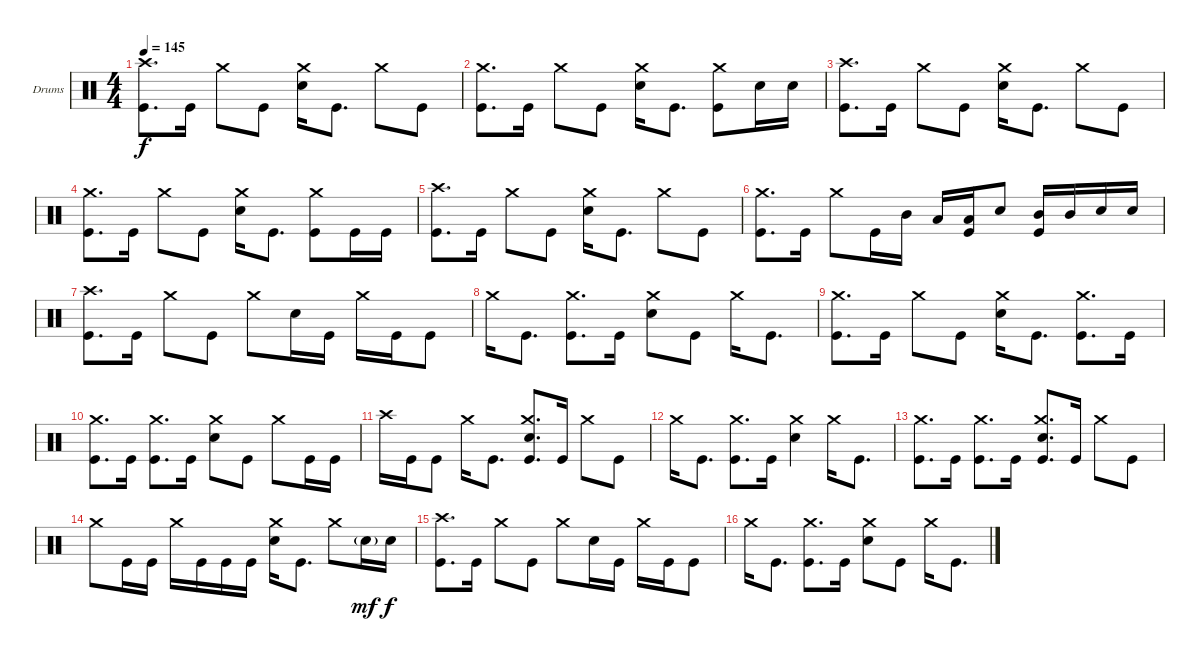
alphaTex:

\bracketExtendMode groupsimilarinstruments
\firstSystemTrackNameOrientation horizontal
\otherSystemsTrackNameOrientation horizontal
\track ("Drumkit" "Drums") {instrument percussion}
\staff {score}
\articulation defaults
\ts (4 4)
\tempo 145
\clef neutral
\ks c
("Crash high (hit)" "Kick (hit)").8{d dy f} "Kick (hit)".16 "Crash medium (hit)".8 "Kick (hit)".8 ("Crash medium (hit)" "Snare (hit) 2").16 "Kick (hit)".8{d} "Crash medium (hit)".8 "Kick (hit)".8 |
("Crash medium (hit)" "Kick (hit)").8{d} "Kick (hit)".16 "Crash medium (hit)".8 "Kick (hit)".8 ("Crash medium (hit)" "Snare (hit) 2").16 "Kick (hit)".8{d} ("Crash medium (hit)" "Kick (hit)").8 "Snare (hit) 2".16 "Snare (hit) 2".16 |
("Crash high (hit)" "Kick (hit)").8{d} "Kick (hit)".16 "Crash medium (hit)".8 "Kick (hit)".8 ("Crash medium (hit)" "Snare (hit) 2").16 "Kick (hit)".8{d} "Crash medium (hit)".8 "Kick (hit)".8 |
("Crash medium (hit)" "Kick (hit)").8{d} "Kick (hit)".16 "Crash medium (hit)".8 "Kick (hit)".8 ("Crash medium (hit)" "Snare (hit) 2").16 "Kick (hit)".8{d} ("Crash medium (hit)" "Kick (hit)").8 "Kick (hit)".16 "Kick (hit)".16 |
("Crash high (hit)" "Kick (hit)").8{d} "Kick (hit)".16 "Crash medium (hit)".8 "Kick (hit)".8 ("Crash medium (hit)" "Snare (hit) 2").16 "Kick (hit)".8{d} "Crash medium (hit)".8 "Kick (hit)".8 |
("Crash medium (hit)" "Kick (hit)").8{d} "Kick (hit)".16 "Crash medium (hit)".8 "Kick (hit)".16 "Mid Tom (hit)".16 "Low Tom (hit)".16 ("Low Tom (hit)" "Kick (hit)").16 "Snare (hit) 2".8 ("Mid Tom (hit)" "Kick (hit)").16 "Mid Tom (hit)".16 "Snare (hit) 2".16 "Snare (hit) 2".16 |
("Crash high (hit)" "Kick (hit)").8{d} "Kick (hit)".16 "Crash medium (hit)".8 "Kick (hit)".8 "Crash medium (hit)".8 "Snare (hit) 2".16 "Kick (hit)".16 "Crash medium (hit)".16 "Kick (hit)".16 "Kick (hit)".8 |
"Crash medium (hit)".16 "Kick (hit)".8{d} ("Crash medium (hit)" "Kick (hit)").8{d} "Kick (hit)".16 ("Crash medium (hit)" "Snare (hit) 2").8 "Kick (hit)".8 "Crash medium (hit)".16 "Kick (hit)".8{d} |
("Crash medium (hit)" "Kick (hit)").8{d} "Kick (hit)".16 "Crash medium (hit)".8 "Kick (hit)".8 ("Crash medium (hit)" "Snare (hit) 2").16 "Kick (hit)".8{d} ("Crash medium (hit)" "Kick (hit)").8{d} "Kick (hit)".16 |
("Crash medium (hit)" "Kick (hit)").8{d} "Kick (hit)".16 ("Crash medium (hit)" "Kick (hit)").8{d} "Kick (hit)".16 ("Crash medium (hit)" "Snare (hit) 2").8 "Kick (hit)".8 "Crash medium (hit)".8 "Kick (hit)".16 "Kick (hit)".16 |
"Crash high (hit)".16 "Kick (hit)".16 "Kick (hit)".8 "Crash medium (hit)".16 "Kick (hit)".8{d} ("Crash medium (hit)" "Snare (hit) 2" "Kick (hit)").8{d} "Kick (hit)".16 "Crash medium (hit)".8 "Kick (hit)".8 |
"Crash medium (hit)".16 "Kick (hit)".8{d} ("Crash medium (hit)" "Kick (hit)").8{d} "Kick (hit)".16 ("Crash medium (hit)" "Snare (hit) 2").4 "Crash medium (hit)".16 "Kick (hit)".8{d} |
("Crash medium (hit)" "Kick (hit)").8{d} "Kick (hit)".16 ("Crash medium (hit)" "Kick (hit)").8{d} "Kick (hit)".16 ("Crash medium (hit)" "Snare (hit) 2" "Kick (hit)").8{d} "Kick (hit)".16 "Crash medium (hit)".8 "Kick (hit)".8 |
"Crash medium (hit)".8 "Kick (hit)".16 "Kick (hit)".16 "Crash medium (hit)".16 "Kick (hit)".16 "Kick (hit)".16 "Kick (hit)".16 ("Crash medium (hit)" "Snare (hit) 2").16 "Kick (hit)".8{d} "Crash medium (hit)".8 "Snare (hit) 2"{g}.16{dy mf} "Snare (hit) 2".16{dy f} |
("Crash high (hit)" "Kick (hit)").8{d} "Kick (hit)".16 "Crash medium (hit)".8 "Kick (hit)".8 "Crash medium (hit)".8 "Snare (hit) 2".16 "Kick (hit)".16 "Crash medium (hit)".16 "Kick (hit)".16 "Kick (hit)".8 |
"Crash medium (hit)".16 "Kick (hit)".8{d} ("Crash medium (hit)" "Kick (hit)").8{d} "Kick (hit)".16 ("Crash medium (hit)" "Snare (hit) 2").8 "Kick (hit)".8 "Crash medium (hit)".16 "Kick (hit)".8{d}
